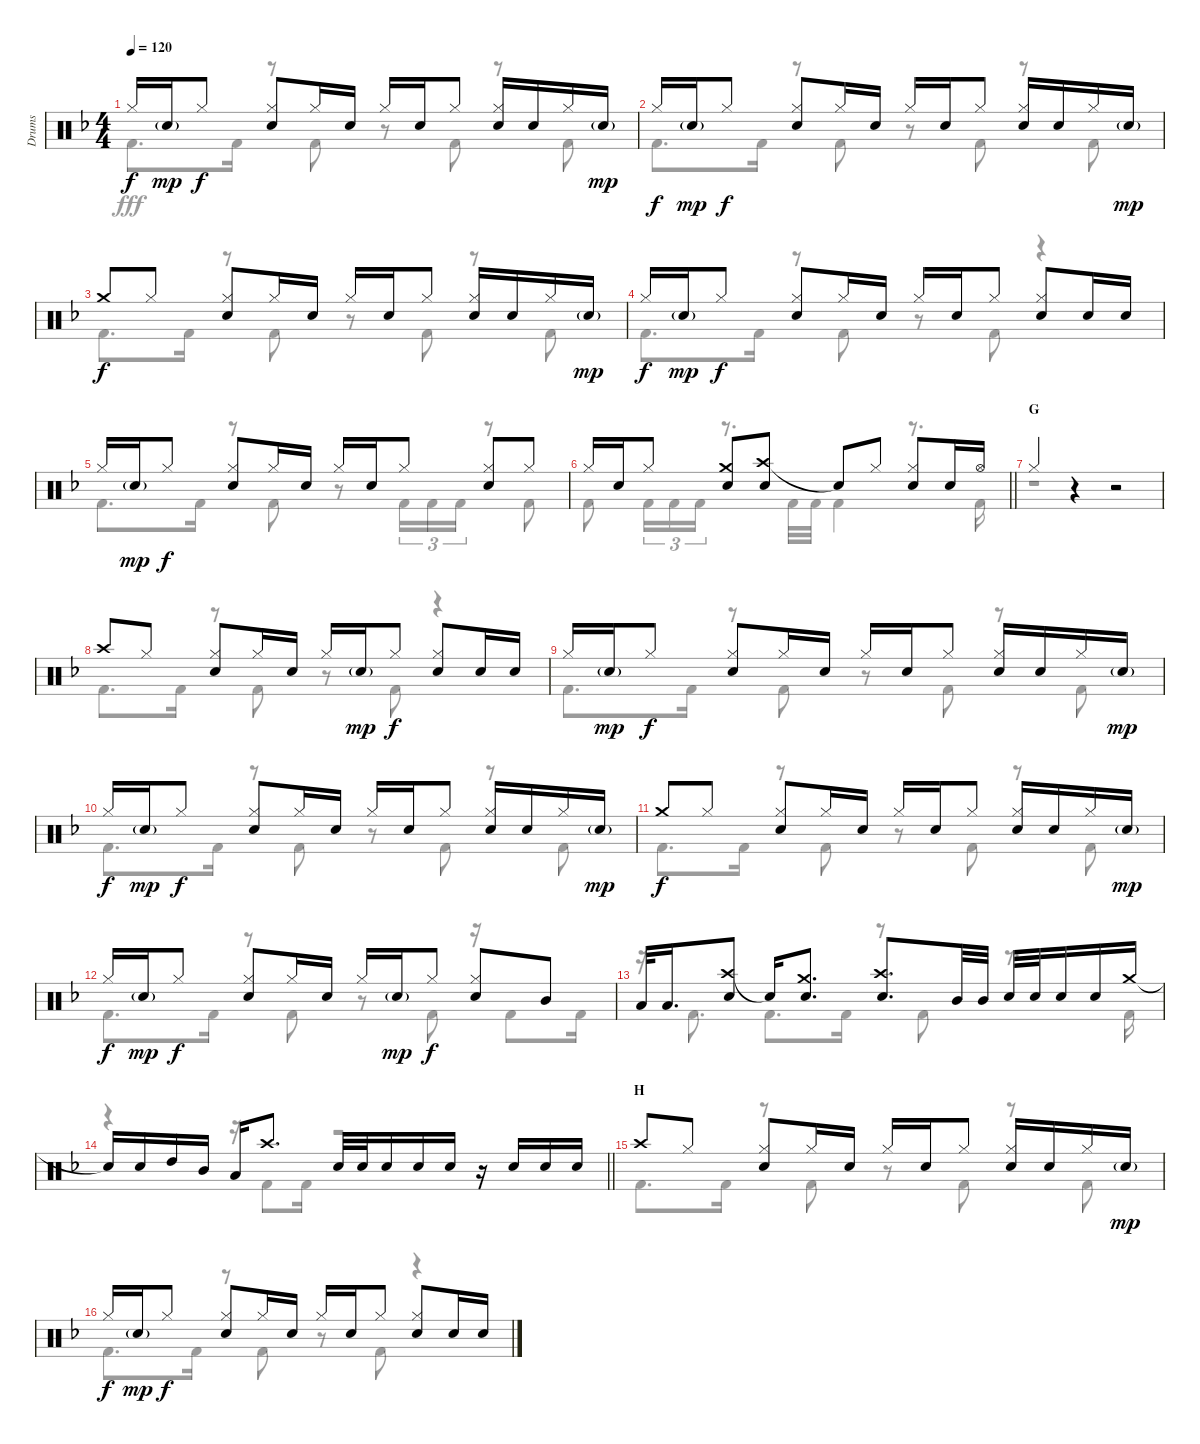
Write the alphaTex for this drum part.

\track ("Drums" "Drums") {instrument percussion}
\staff {score}
\articulation defaults
\voice
\ts (4 4)
\tempo 120
\clef neutral
\ks f "Hi-Hat (closed)".16{dy f} "Snare (hit) 2"{g}.16{dy mp} "Hi-Hat (closed)".8{dy f}
("Hi-Hat (closed)" "Snare (hit) 2").8 "Hi-Hat (closed)".16 "Snare (hit) 2".16 "Hi-Hat (closed)".16 "Snare (hit) 2".16 "Hi-Hat (closed)".8 ("Hi-Hat (closed)" "Snare (hit) 2").16 "Snare (hit) 2".16 "Hi-Hat (closed)".16 "Snare (hit) 2"{g}.16{dy mp} |
"Hi-Hat (closed)".16{dy f} "Snare (hit) 2"{g}.16{dy mp} "Hi-Hat (closed)".8{dy f} ("Hi-Hat (closed)" "Snare (hit) 2").8 "Hi-Hat (closed)".16 "Snare (hit) 2".16 "Hi-Hat (closed)".16 "Snare (hit) 2".16 "Hi-Hat (closed)".8 ("Hi-Hat (closed)" "Snare (hit) 2").16 "Snare (hit) 2".16 "Hi-Hat (closed)".16 "Snare (hit) 2"{g}.16{dy mp} |
"Crash medium (hit)".8{dy f} "Hi-Hat (closed)".8 ("Hi-Hat (closed)" "Snare (hit) 2").8 "Hi-Hat (closed)".16 "Snare (hit) 2".16 "Hi-Hat (closed)".16 "Snare (hit) 2".16 "Hi-Hat (closed)".8 ("Hi-Hat (closed)" "Snare (hit) 2").16 "Snare (hit) 2".16 "Hi-Hat (closed)".16 "Snare (hit) 2"{g}.16{dy mp} |
"Hi-Hat (closed)".16{dy f} "Snare (hit) 2"{g}.16{dy mp} "Hi-Hat (closed)".8{dy f} ("Hi-Hat (closed)" "Snare (hit) 2").8 "Hi-Hat (closed)".16 "Snare (hit) 2".16 "Hi-Hat (closed)".16 "Snare (hit) 2".16 "Hi-Hat (closed)".8 ("Hi-Hat (closed)" "Snare (hit) 2").8 "Snare (hit) 2".16 "Snare (hit) 2".16 |
"Hi-Hat (closed)".16 "Snare (hit) 2"{g}.16{dy mp} "Hi-Hat (closed)".8{dy f} ("Hi-Hat (closed)" "Snare (hit) 2").8 "Hi-Hat (closed)".16 "Snare (hit) 2".16 "Hi-Hat (closed)".16 "Snare (hit) 2".16 "Hi-Hat (closed)".8 ("Hi-Hat (closed)" "Snare (hit) 2").8 "Hi-Hat (closed)".8 |
\barLineRight lightlight "Hi-Hat (closed)".16 "Snare (hit) 2".16 "Hi-Hat (closed)".8
("Crash medium (hit)" "Snare (hit) 2").8 ("Crash high (hit)" "Snare (hit) 2").8 "Snare (hit)"{t}.8 "Hi-Hat (closed)".8 ("Hi-Hat (closed)" "Snare (hit) 2").8 "Snare (hit) 2".16 "Hi-Hat (open)".16 |
\section ("" "G")
"Hi-Hat (closed)".4 r.4 r.2 |
"Crash high (hit)".8 "Hi-Hat (closed)".8 ("Hi-Hat (closed)" "Snare (hit) 2").8 "Hi-Hat (closed)".16 "Snare (hit) 2".16 "Hi-Hat (closed)".16 "Snare (hit) 2"{g}.16{dy mp} "Hi-Hat (closed)".8{dy f} ("Hi-Hat (closed)" "Snare (hit) 2").8 "Snare (hit) 2".16 "Snare (hit) 2".16 |
"Hi-Hat (closed)".16 "Snare (hit) 2"{g}.16{dy mp} "Hi-Hat (closed)".8{dy f} ("Hi-Hat (closed)" "Snare (hit) 2").8 "Hi-Hat (closed)".16 "Snare (hit) 2".16 "Hi-Hat (closed)".16 "Snare (hit) 2".16 "Hi-Hat (closed)".8 ("Hi-Hat (closed)" "Snare (hit) 2").16 "Snare (hit) 2".16 "Hi-Hat (closed)".16 "Snare (hit) 2"{g}.16{dy mp} |
"Hi-Hat (closed)".16{dy f} "Snare (hit) 2"{g}.16{dy mp} "Hi-Hat (closed)".8{dy f} ("Hi-Hat (closed)" "Snare (hit) 2").8 "Hi-Hat (closed)".16 "Snare (hit) 2".16 "Hi-Hat (closed)".16 "Snare (hit) 2".16 "Hi-Hat (closed)".8 ("Hi-Hat (closed)" "Snare (hit) 2").16 "Snare (hit) 2".16 "Hi-Hat (closed)".16 "Snare (hit) 2"{g}.16{dy mp} |
"Crash medium (hit)".8{dy f} "Hi-Hat (closed)".8 ("Hi-Hat (closed)" "Snare (hit) 2").8 "Hi-Hat (closed)".16 "Snare (hit) 2".16 "Hi-Hat (closed)".16 "Snare (hit) 2".16 "Hi-Hat (closed)".8 ("Hi-Hat (closed)" "Snare (hit) 2").16 "Snare (hit) 2".16 "Hi-Hat (closed)".16 "Snare (hit) 2"{g}.16{dy mp} |
"Hi-Hat (closed)".16{dy f} "Snare (hit) 2"{g}.16{dy mp} "Hi-Hat (closed)".8{dy f} ("Hi-Hat (closed)" "Snare (hit) 2").8 "Hi-Hat (closed)".16 "Snare (hit) 2".16 "Hi-Hat (closed)".16 "Snare (hit) 2"{g}.16{dy mp} "Hi-Hat (closed)".8{dy f} ("Hi-Hat (closed)" "Snare (hit) 2").8 "Mid Tom (hit)".8 |
"Low Tom (hit)".32 "Low Tom (hit)".16{d} ("Crash high (hit)" "Snare (hit) 2").8 "Snare (hit)"{t}.16 ("Crash medium (hit)" "Snare (hit) 2").8{d} ("Crash high (hit)" "Snare (hit) 2").8{d} "Mid Tom (hit)".32 "Mid Tom (hit)".32 "Snare (hit) 2".32 "Snare (hit) 2".32 "Snare (hit) 2".16 "Snare (hit) 2".16 "Crash medium (hit)".16 |
\barLineRight lightlight "Snare (hit)"{t}.16 "Snare (hit) 2".16 "High Tom (hit)".16 "Mid Tom (hit)".16 "Low Tom (hit)".16 "Crash high (hit)".8{d} "Snare (hit) 2".32 "Snare (hit) 2".32 "Snare (hit) 2".16 "Snare (hit) 2".16 "Snare (hit) 2".16
r.16 "Snare (hit) 2".16 "Snare (hit) 2".16 "Snare (hit) 2".16 |
\section ("" "H")
"Crash high (hit)".8 "Hi-Hat (closed)".8 ("Hi-Hat (closed)" "Snare (hit) 2").8 "Hi-Hat (closed)".16 "Snare (hit) 2".16 "Hi-Hat (closed)".16 "Snare (hit) 2".16 "Hi-Hat (closed)".8 ("Hi-Hat (closed)" "Snare (hit) 2").16 "Snare (hit) 2".16 "Hi-Hat (closed)".16 "Snare (hit) 2"{g}.16{dy mp} |
"Hi-Hat (closed)".16{dy f} "Snare (hit) 2"{g}.16{dy mp} "Hi-Hat (closed)".8{dy f} ("Hi-Hat (closed)" "Snare (hit) 2").8 "Hi-Hat (closed)".16 "Snare (hit) 2".16 "Hi-Hat (closed)".16 "Snare (hit) 2".16 "Hi-Hat (closed)".8 ("Hi-Hat (closed)" "Snare (hit) 2").8 "Snare (hit) 2".16 "Snare (hit) 2".16
\voice
\clef neutral
\ottava regular
\simile none
\ks f "Kick (hit) 2".8{d dy fff} "Kick (hit) 2".16
r.8 "Kick (hit) 2".8 r.8 "Kick (hit) 2".8 r.8 "Kick (hit) 2".8 |
"Kick (hit) 2".8{d} "Kick (hit) 2".16 r.8 "Kick (hit) 2".8 r.8 "Kick (hit) 2".8 r.8 "Kick (hit) 2".8 |
"Kick (hit) 2".8{d} "Kick (hit) 2".16 r.8 "Kick (hit) 2".8 r.8 "Kick (hit) 2".8 r.8 "Kick (hit) 2".8 |
"Kick (hit) 2".8{d} "Kick (hit) 2".16 r.8 "Kick (hit) 2".8 r.8 "Kick (hit) 2".8 r.4 |
"Kick (hit) 2".8{d} "Kick (hit) 2".16 r.8 "Kick (hit) 2".8 r.8 "Kick (hit) 2".16{tu (3 2)} "Kick (hit) 2".16{tu (3 2)} "Kick (hit) 2".16{tu (3 2)} r.8 "Kick (hit) 2".8 |
\barLineRight lightlight "Kick (hit) 2".8 "Kick (hit) 2".16{tu (3 2)} "Kick (hit) 2".16{tu (3 2)} "Kick (hit) 2".16{tu (3 2)}
r.8{d} "Kick (hit) 2".32 "Kick (hit) 2".32 "Kick (hit) 2".4 r.8{d} "Kick (hit) 2".16 |
r.1 |
"Kick (hit) 2".8{d} "Kick (hit) 2".16 r.8 "Kick (hit) 2".8 r.8 "Kick (hit) 2".8 r.4 |
"Kick (hit) 2".8{d} "Kick (hit) 2".16 r.8 "Kick (hit) 2".8 r.8 "Kick (hit) 2".8 r.8 "Kick (hit) 2".8 |
"Kick (hit) 2".8{d} "Kick (hit) 2".16 r.8 "Kick (hit) 2".8 r.8 "Kick (hit) 2".8 r.8 "Kick (hit) 2".8 |
"Kick (hit) 2".8{d} "Kick (hit) 2".16 r.8 "Kick (hit) 2".8 r.8 "Kick (hit) 2".8 r.8 "Kick (hit) 2".8 |
"Kick (hit) 2".8{d} "Kick (hit) 2".16 r.8 "Kick (hit) 2".8 r.8 "Kick (hit) 2".8 r.16 "Kick (hit) 2".8 "Kick (hit) 2".16 |
r.16 "Kick (hit) 2".8{d} "Kick (hit) 2".8{d} "Kick (hit) 2".16 r.8 "Kick (hit) 2".8 r.8{d} "Kick (hit) 2".16 |
\barLineRight lightlight
r.4 r.16 "Kick (hit) 2".8 "Kick (hit) 2".16 r.2 |
"Kick (hit) 2".8{d} "Kick (hit) 2".16 r.8 "Kick (hit) 2".8 r.8 "Kick (hit) 2".8 r.8 "Kick (hit) 2".8 |
"Kick (hit) 2".8{d} "Kick (hit) 2".16 r.8 "Kick (hit) 2".8 r.8 "Kick (hit) 2".8 r.4
